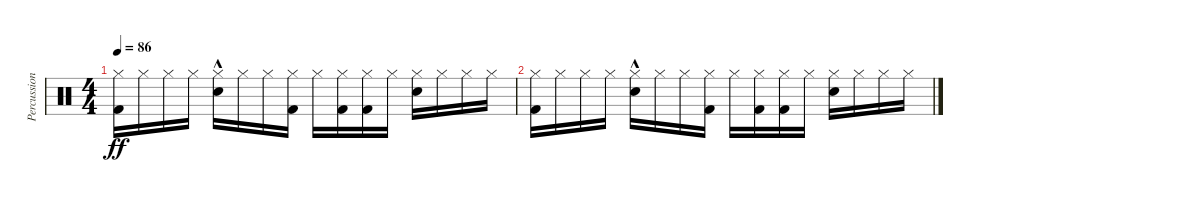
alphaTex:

\track ("Percussion" "Percussion") {instrument percussion}
\staff {score}
\articulation defaults
\ts (4 4)
\tempo 86
\clef neutral
\ks c
("Hi-Hat (closed)" "Kick (hit) 2").16{dy ff} "Hi-Hat (closed)".16 "Hi-Hat (closed)".16 "Hi-Hat (closed)".16 ("Snare (hit) 2"{hac} "Hi-Hat (closed)").16 "Hi-Hat (closed)".16 "Hi-Hat (closed)".16 ("Hi-Hat (closed)" "Kick (hit) 2").16 "Hi-Hat (closed)".16 ("Kick (hit) 2" "Hi-Hat (closed)").16 ("Kick (hit) 2" "Hi-Hat (closed)").16 "Hi-Hat (closed)".16 ("Hi-Hat (closed)" "Snare (hit) 2").16 "Hi-Hat (closed)".16 "Hi-Hat (closed)".16 "Hi-Hat (closed)".16 |
("Hi-Hat (closed)" "Kick (hit) 2").16 "Hi-Hat (closed)".16 "Hi-Hat (closed)".16 "Hi-Hat (closed)".16 ("Snare (hit) 2"{hac} "Hi-Hat (closed)").16 "Hi-Hat (closed)".16 "Hi-Hat (closed)".16 ("Hi-Hat (closed)" "Kick (hit) 2").16 "Hi-Hat (closed)".16 ("Kick (hit) 2" "Hi-Hat (closed)").16 ("Kick (hit) 2" "Hi-Hat (closed)").16 "Hi-Hat (closed)".16 ("Hi-Hat (closed)" "Snare (hit) 2").16 "Hi-Hat (closed)".16 "Hi-Hat (closed)".16 "Hi-Hat (closed)".16
